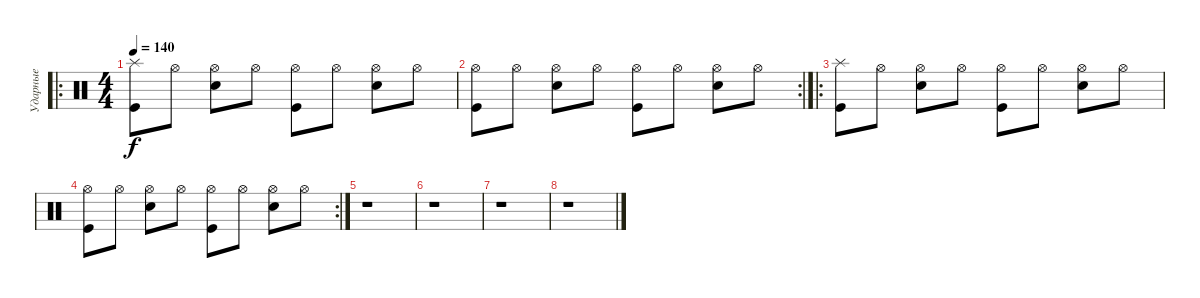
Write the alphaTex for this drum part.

\track ("Ударные" "Ударные") {instrument percussion}
\staff {score}
\articulation defaults
\ro
\ts (4 4)
\tempo 140
\clef neutral
\ks c
("Splash (hit)" "Kick (hit)").8{dy f} "Hi-Hat (open)".8 ("Hi-Hat (open)" "Snare (hit) 2").8 "Hi-Hat (open)".8 ("Hi-Hat (open)" "Kick (hit)").8 "Hi-Hat (open)".8 ("Hi-Hat (open)" "Snare (hit) 2").8 "Hi-Hat (open)".8 |
\rc 2
("Hi-Hat (open)" "Kick (hit)").8 "Hi-Hat (open)".8 ("Hi-Hat (open)" "Snare (hit) 2").8 "Hi-Hat (open)".8 ("Hi-Hat (open)" "Kick (hit)").8 "Hi-Hat (open)".8 ("Hi-Hat (open)" "Snare (hit) 2").8 "Hi-Hat (open)".8 |
\ro
("Splash (hit)" "Kick (hit)").8 "Hi-Hat (open)".8 ("Hi-Hat (open)" "Snare (hit) 2").8 "Hi-Hat (open)".8 ("Hi-Hat (open)" "Kick (hit)").8 "Hi-Hat (open)".8 ("Hi-Hat (open)" "Snare (hit) 2").8 "Hi-Hat (open)".8 |
\rc 2
("Hi-Hat (open)" "Kick (hit)").8 "Hi-Hat (open)".8 ("Hi-Hat (open)" "Snare (hit) 2").8 "Hi-Hat (open)".8 ("Hi-Hat (open)" "Kick (hit)").8 "Hi-Hat (open)".8 ("Hi-Hat (open)" "Snare (hit) 2").8 "Hi-Hat (open)".8 |
r.1 |
r.1 |
r.1 |
r.1
